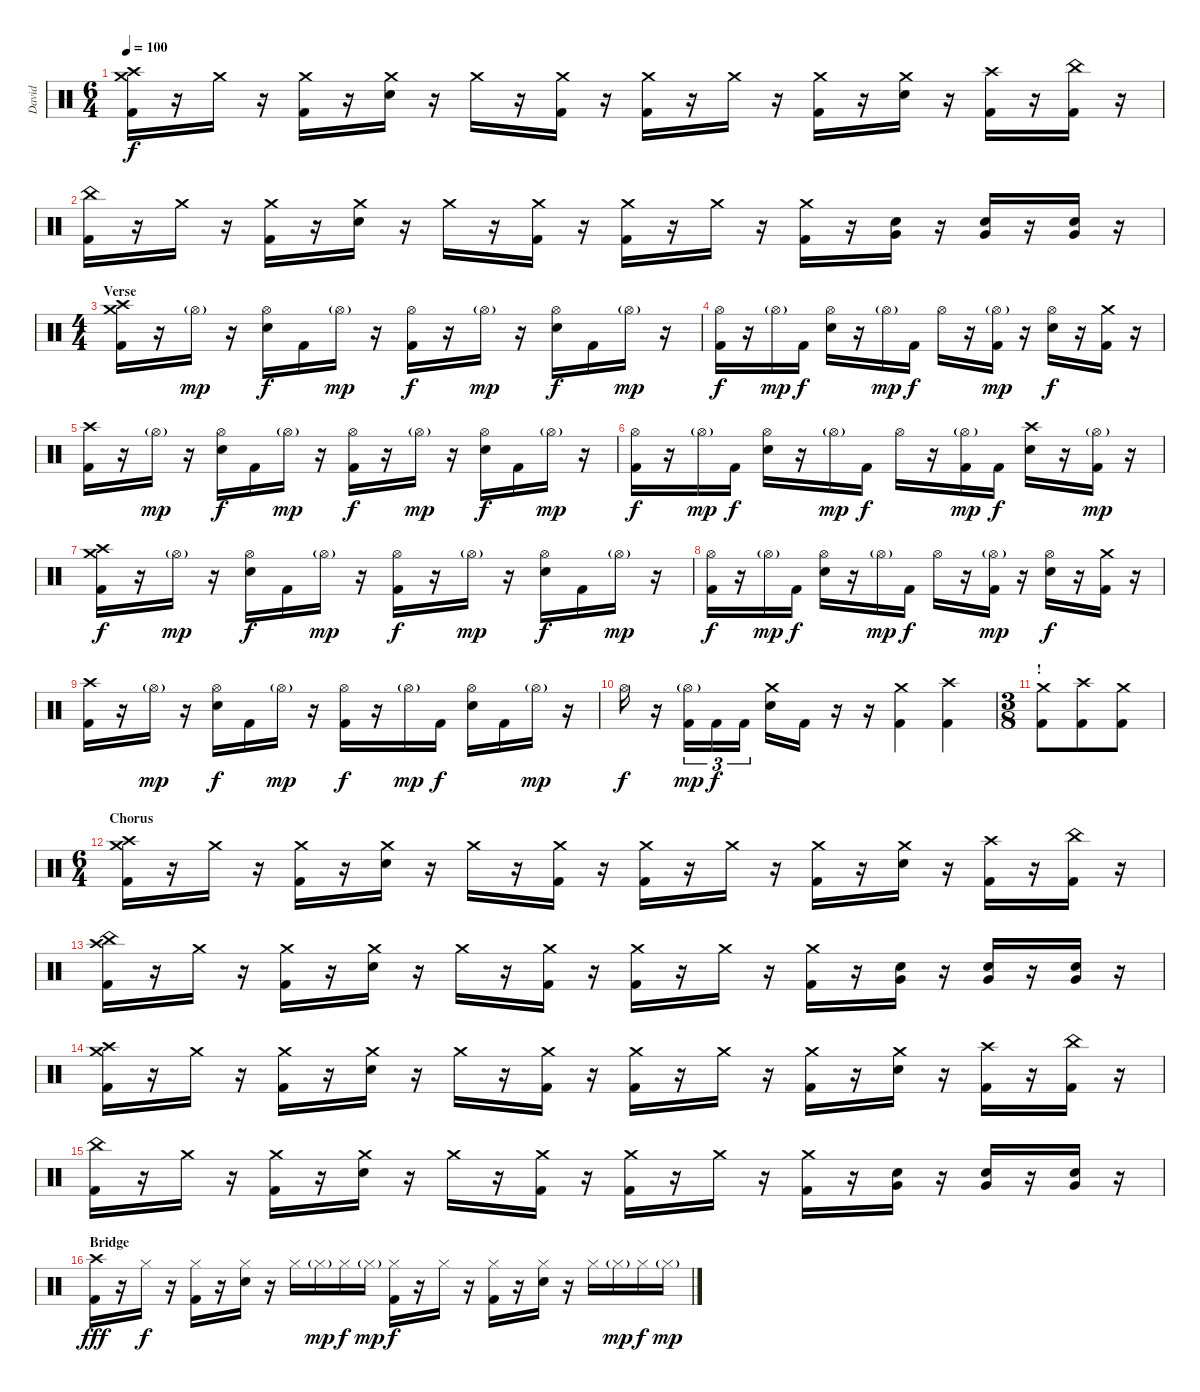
\track ("David" "David") {instrument percussion}
\staff {score}
\articulation defaults
\ts (6 4)
\tempo 100
\clef neutral
\ks c
("Crash medium (hit)" "Crash high (hit)" "Kick (hit) 2").16{dy f} r.16 "Crash medium (hit)".16 r.16 ("Crash medium (hit)" "Kick (hit) 2").16 r.16 ("Crash medium (hit)" "Electric Snare (hit)").16 r.16 "Crash medium (hit)".16 r.16 ("Crash medium (hit)" "Kick (hit) 2").16 r.16 ("Crash medium (hit)" "Kick (hit) 2").16 r.16 "Crash medium (hit)".16 r.16 ("Crash medium (hit)" "Kick (hit) 2").16 r.16 ("Crash medium (hit)" "Electric Snare (hit)").16 r.16 ("Crash high (hit)" "Kick (hit) 2").16 r.16 ("China (hit)" "Kick (hit) 2").16 r.16 |
("China (hit)" "Kick (hit) 2").16 r.16 "Crash medium (hit)".16 r.16 ("Crash medium (hit)" "Kick (hit) 2").16 r.16 ("Crash medium (hit)" "Electric Snare (hit)").16 r.16 "Crash medium (hit)".16 r.16 ("Crash medium (hit)" "Kick (hit) 2").16 r.16 ("Crash medium (hit)" "Kick (hit) 2").16 r.16 "Crash medium (hit)".16 r.16 ("Crash medium (hit)" "Kick (hit) 2").16 r.16 ("Electric Snare (hit)" "Very Low Tom (hit)").16 r.16 ("Electric Snare (hit)" "Very Low Tom (hit)").16 r.16 ("Electric Snare (hit)" "Very Low Tom (hit)").16 r.16 |
\ts (4 4)
\section ("" "Verse")
("Crash high (hit)" "Crash medium (hit)" "Kick (hit) 2").16 r.16 "Hi-Hat (open)"{g}.16{dy mp} r.16 ("Hi-Hat (open)" "Electric Snare (hit)").16{dy f} "Kick (hit) 2".16 "Hi-Hat (open)"{g}.16{dy mp} r.16 ("Hi-Hat (open)" "Kick (hit) 2").16{dy f} r.16 "Hi-Hat (open)"{g}.16{dy mp} r.16 ("Hi-Hat (open)" "Electric Snare (hit)").16{dy f} "Kick (hit) 2".16 "Hi-Hat (open)"{g}.16{dy mp} r.16 |
("Hi-Hat (open)" "Kick (hit) 2").16{dy f} r.16 "Hi-Hat (open)"{g}.16{dy mp} "Kick (hit) 2".16{dy f} ("Hi-Hat (open)" "Electric Snare (hit)").16 r.16 "Hi-Hat (open)"{g}.16{dy mp} "Kick (hit) 2".16{dy f} "Hi-Hat (open)".16 r.16 ("Hi-Hat (open)"{g} "Kick (hit) 2").16{dy mp} r.16 ("Hi-Hat (open)" "Electric Snare (hit)").16{dy f} r.16 ("Crash medium (hit)" "Kick (hit) 2").16 r.16 |
("Crash high (hit)" "Kick (hit) 2").16 r.16 "Hi-Hat (open)"{g}.16{dy mp} r.16 ("Hi-Hat (open)" "Electric Snare (hit)").16{dy f} "Kick (hit) 2".16 "Hi-Hat (open)"{g}.16{dy mp} r.16 ("Hi-Hat (open)" "Kick (hit) 2").16{dy f} r.16 "Hi-Hat (open)"{g}.16{dy mp} r.16 ("Hi-Hat (open)" "Electric Snare (hit)").16{dy f} "Kick (hit) 2".16 "Hi-Hat (open)"{g}.16{dy mp} r.16 |
("Hi-Hat (open)" "Kick (hit) 2").16{dy f} r.16 "Hi-Hat (open)"{g}.16{dy mp} "Kick (hit) 2".16{dy f} ("Hi-Hat (open)" "Electric Snare (hit)").16 r.16 "Hi-Hat (open)"{g}.16{dy mp} "Kick (hit) 2".16{dy f} "Hi-Hat (open)".16 r.16 ("Hi-Hat (open)"{g} "Kick (hit) 2").16{dy mp} "Kick (hit) 2".16{dy f} ("Crash high (hit)" "Electric Snare (hit)").16 r.16 ("Hi-Hat (open)"{g} "Kick (hit) 2").16{dy mp} r.16 |
("Crash high (hit)" "Crash medium (hit)" "Kick (hit) 2").16{dy f} r.16 "Hi-Hat (open)"{g}.16{dy mp} r.16 ("Hi-Hat (open)" "Electric Snare (hit)").16{dy f} "Kick (hit) 2".16 "Hi-Hat (open)"{g}.16{dy mp} r.16 ("Hi-Hat (open)" "Kick (hit) 2").16{dy f} r.16 "Hi-Hat (open)"{g}.16{dy mp} r.16 ("Hi-Hat (open)" "Electric Snare (hit)").16{dy f} "Kick (hit) 2".16 "Hi-Hat (open)"{g}.16{dy mp} r.16 |
("Hi-Hat (open)" "Kick (hit) 2").16{dy f} r.16 "Hi-Hat (open)"{g}.16{dy mp} "Kick (hit) 2".16{dy f} ("Hi-Hat (open)" "Electric Snare (hit)").16 r.16 "Hi-Hat (open)"{g}.16{dy mp} "Kick (hit) 2".16{dy f} "Hi-Hat (open)".16 r.16 ("Hi-Hat (open)"{g} "Kick (hit) 2").16{dy mp} r.16 ("Hi-Hat (open)" "Electric Snare (hit)").16{dy f} r.16 ("Crash medium (hit)" "Kick (hit) 2").16 r.16 |
("Crash high (hit)" "Kick (hit) 2").16 r.16 "Hi-Hat (open)"{g}.16{dy mp} r.16 ("Hi-Hat (open)" "Electric Snare (hit)").16{dy f} "Kick (hit) 2".16 "Hi-Hat (open)"{g}.16{dy mp} r.16 ("Hi-Hat (open)" "Kick (hit) 2").16{dy f} r.16 "Hi-Hat (open)"{g}.16{dy mp} "Kick (hit) 2".16{dy f} ("Hi-Hat (open)" "Electric Snare (hit)").16 "Kick (hit) 2".16 "Hi-Hat (open)"{g}.16{dy mp} r.16 |
"Hi-Hat (open)".16{dy f} r.16 ("Hi-Hat (open)"{g} "Kick (hit) 2").16{tu (3 2) dy mp} "Kick (hit) 2".16{tu (3 2) dy f} "Kick (hit) 2".16{tu (3 2)} ("Crash medium (hit)" "Electric Snare (hit)").16 "Kick (hit) 2".16 r.16 r.16 ("Crash medium (hit)" "Kick (hit) 2").4 ("Crash high (hit)" "Kick (hit) 2").4 |
\ts (3 8)
\section ("" "!")
("Crash medium (hit)" "Kick (hit) 2").8 ("Crash high (hit)" "Kick (hit) 2").8 ("Crash medium (hit)" "Kick (hit) 2").8 |
\ts (6 4)
\section ("" "Chorus")
("Crash medium (hit)" "Crash high (hit)" "Kick (hit) 2").16 r.16 "Crash medium (hit)".16 r.16 ("Crash medium (hit)" "Kick (hit) 2").16 r.16 ("Crash medium (hit)" "Electric Snare (hit)").16 r.16 "Crash medium (hit)".16 r.16 ("Crash medium (hit)" "Kick (hit) 2").16 r.16 ("Crash medium (hit)" "Kick (hit) 2").16 r.16 "Crash medium (hit)".16 r.16 ("Crash medium (hit)" "Kick (hit) 2").16 r.16 ("Crash medium (hit)" "Electric Snare (hit)").16 r.16 ("Crash high (hit)" "Kick (hit) 2").16 r.16 ("China (hit)" "Kick (hit) 2").16 r.16 |
("China (hit)" "Crash high (hit)" "Kick (hit) 2").16 r.16 "Crash medium (hit)".16 r.16 ("Crash medium (hit)" "Kick (hit) 2").16 r.16 ("Crash medium (hit)" "Electric Snare (hit)").16 r.16 "Crash medium (hit)".16 r.16 ("Crash medium (hit)" "Kick (hit) 2").16 r.16 ("Crash medium (hit)" "Kick (hit) 2").16 r.16 "Crash medium (hit)".16 r.16 ("Crash medium (hit)" "Kick (hit) 2").16 r.16 ("Electric Snare (hit)" "Very Low Tom (hit)").16 r.16 ("Electric Snare (hit)" "Very Low Tom (hit)").16 r.16 ("Electric Snare (hit)" "Very Low Tom (hit)").16 r.16 |
("Crash medium (hit)" "Crash high (hit)" "Kick (hit) 2").16 r.16 "Crash medium (hit)".16 r.16 ("Crash medium (hit)" "Kick (hit) 2").16 r.16 ("Crash medium (hit)" "Electric Snare (hit)").16 r.16 "Crash medium (hit)".16 r.16 ("Crash medium (hit)" "Kick (hit) 2").16 r.16 ("Crash medium (hit)" "Kick (hit) 2").16 r.16 "Crash medium (hit)".16 r.16 ("Crash medium (hit)" "Kick (hit) 2").16 r.16 ("Crash medium (hit)" "Electric Snare (hit)").16 r.16 ("Crash high (hit)" "Kick (hit) 2").16 r.16 ("China (hit)" "Kick (hit) 2").16 r.16 |
("China (hit)" "Kick (hit) 2").16 r.16 "Crash medium (hit)".16 r.16 ("Crash medium (hit)" "Kick (hit) 2").16 r.16 ("Crash medium (hit)" "Electric Snare (hit)").16 r.16 "Crash medium (hit)".16 r.16 ("Crash medium (hit)" "Kick (hit) 2").16 r.16 ("Crash medium (hit)" "Kick (hit) 2").16 r.16 "Crash medium (hit)".16 r.16 ("Crash medium (hit)" "Kick (hit) 2").16 r.16 ("Electric Snare (hit)" "Very Low Tom (hit)").16 r.16 ("Electric Snare (hit)" "Very Low Tom (hit)").16 r.16 ("Electric Snare (hit)" "Very Low Tom (hit)").16 r.16 |
\section ("" "Bridge")
("Crash high (hit)" "Kick (hit) 2").16{dy fff volume 11} r.16 "Hi-Hat (closed)".16{dy f} r.16 ("Hi-Hat (closed)" "Kick (hit) 2").16 r.16 ("Hi-Hat (closed)" "Electric Snare (hit)").16 r.16 "Hi-Hat (closed)".16 "Hi-Hat (closed)"{g}.16{dy mp} "Hi-Hat (closed)".16{dy f} "Hi-Hat (closed)"{g}.16{dy mp} ("Hi-Hat (closed)" "Kick (hit) 2").16{dy f} r.16 "Hi-Hat (closed)".16 r.16 ("Hi-Hat (closed)" "Kick (hit) 2").16 r.16 ("Hi-Hat (closed)" "Electric Snare (hit)").16 r.16 "Hi-Hat (closed)".16 "Hi-Hat (closed)"{g}.16{dy mp} "Hi-Hat (closed)".16{dy f} "Hi-Hat (closed)"{g}.16{dy mp}
